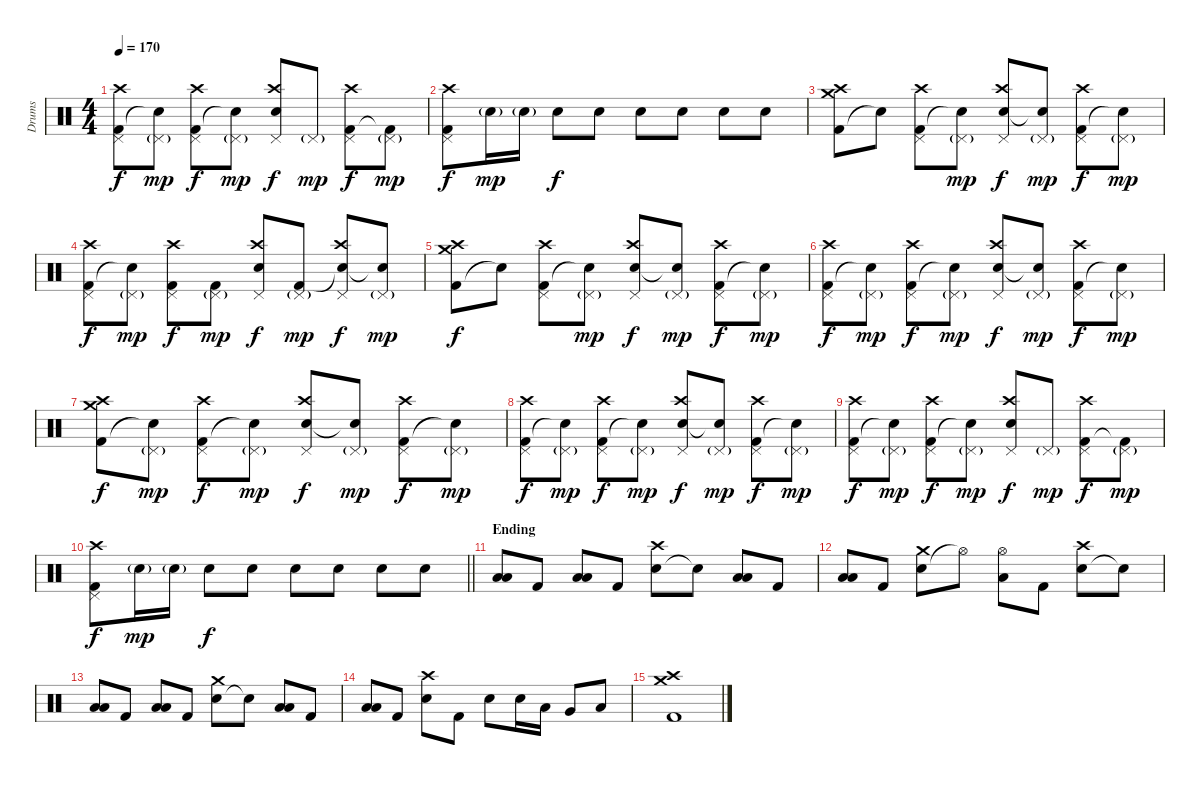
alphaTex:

\track ("Drums" "Drums") {instrument percussion}
\staff {score}
\articulation defaults
\ts (4 4)
\tempo 170
\clef neutral
\ks c
("Kick (hit) 2" "Pedal Hi-Hat (hit)" "Crash high (hit)").8{dy f} ("Snare (hit)"{t} "Pedal Hi-Hat (hit)"{g}).8{dy mp} ("Kick (hit) 2" "Pedal Hi-Hat (hit)" "Crash high (hit)").8{dy f} ("Snare (hit)"{t} "Pedal Hi-Hat (hit)"{g}).8{dy mp} ("Electric Snare (hit)" "Pedal Hi-Hat (hit)" "Crash high (hit)").8{dy f} "Pedal Hi-Hat (hit)"{g}.8{dy mp} ("Kick (hit) 2" "Pedal Hi-Hat (hit)" "Crash high (hit)").8{dy f} ("Kick (hit) 2"{t} "Pedal Hi-Hat (hit)"{g}).8{dy mp} |
("Kick (hit) 2" "Pedal Hi-Hat (hit)" "Crash high (hit)").8{dy f} "Electric Snare (hit)"{g}.16{dy mp} "Electric Snare (hit)"{g}.16 "Electric Snare (hit)".8{dy f} "Electric Snare (hit)".8 "Electric Snare (hit)".8 "Electric Snare (hit)".8 "Electric Snare (hit)".8 "Electric Snare (hit)".8 |
("Kick (hit) 2" "Crash medium (hit)" "Crash high (hit)").8 "Snare (hit)"{t}.8 ("Kick (hit) 2" "Pedal Hi-Hat (hit)" "Crash high (hit)").8 ("Snare (hit)"{t} "Pedal Hi-Hat (hit)"{g}).8{dy mp} ("Electric Snare (hit)" "Pedal Hi-Hat (hit)" "Crash high (hit)").8{dy f} ("Snare (hit)"{t} "Pedal Hi-Hat (hit)"{g}).8{dy mp} ("Kick (hit) 2" "Pedal Hi-Hat (hit)" "Crash high (hit)").8{dy f} ("Snare (hit)"{t} "Pedal Hi-Hat (hit)"{g}).8{dy mp} |
("Kick (hit) 2" "Pedal Hi-Hat (hit)" "Crash high (hit)").8{dy f} ("Snare (hit)"{t} "Pedal Hi-Hat (hit)"{g}).8{dy mp} ("Kick (hit) 2" "Pedal Hi-Hat (hit)" "Crash high (hit)").8{dy f} ("Kick (hit) 2" "Pedal Hi-Hat (hit)"{g}).8{dy mp} ("Electric Snare (hit)" "Pedal Hi-Hat (hit)" "Crash high (hit)").8{dy f} ("Kick (hit) 2" "Pedal Hi-Hat (hit)"{g}).8{dy mp} ("Snare (hit)"{t} "Pedal Hi-Hat (hit)" "Crash high (hit)").8{dy f} ("Snare (hit)"{t} "Pedal Hi-Hat (hit)"{g}).8{dy mp} |
("Kick (hit) 2" "Crash medium (hit)" "Crash high (hit)").8{dy f} "Snare (hit)"{t}.8 ("Kick (hit) 2" "Pedal Hi-Hat (hit)" "Crash high (hit)").8 ("Snare (hit)"{t} "Pedal Hi-Hat (hit)"{g}).8{dy mp} ("Electric Snare (hit)" "Pedal Hi-Hat (hit)" "Crash high (hit)").8{dy f} ("Snare (hit)"{t} "Pedal Hi-Hat (hit)"{g}).8{dy mp} ("Kick (hit) 2" "Pedal Hi-Hat (hit)" "Crash high (hit)").8{dy f} ("Snare (hit)"{t} "Pedal Hi-Hat (hit)"{g}).8{dy mp} |
("Kick (hit) 2" "Pedal Hi-Hat (hit)" "Crash high (hit)").8{dy f} ("Snare (hit)"{t} "Pedal Hi-Hat (hit)"{g}).8{dy mp} ("Kick (hit) 2" "Pedal Hi-Hat (hit)" "Crash high (hit)").8{dy f} ("Snare (hit)"{t} "Pedal Hi-Hat (hit)"{g}).8{dy mp} ("Electric Snare (hit)" "Pedal Hi-Hat (hit)" "Crash high (hit)").8{dy f} ("Snare (hit)"{t} "Pedal Hi-Hat (hit)"{g}).8{dy mp} ("Kick (hit) 2" "Pedal Hi-Hat (hit)" "Crash high (hit)").8{dy f} ("Snare (hit)"{t} "Pedal Hi-Hat (hit)"{g}).8{dy mp} |
("Kick (hit) 2" "Crash medium (hit)" "Crash high (hit)").8{dy f} ("Snare (hit)"{t} "Pedal Hi-Hat (hit)"{g}).8{dy mp} ("Kick (hit) 2" "Pedal Hi-Hat (hit)" "Crash high (hit)").8{dy f} ("Snare (hit)"{t} "Pedal Hi-Hat (hit)"{g}).8{dy mp} ("Electric Snare (hit)" "Pedal Hi-Hat (hit)" "Crash high (hit)").8{dy f} ("Snare (hit)"{t} "Pedal Hi-Hat (hit)"{g}).8{dy mp} ("Kick (hit) 2" "Pedal Hi-Hat (hit)" "Crash high (hit)").8{dy f} ("Snare (hit)"{t} "Pedal Hi-Hat (hit)"{g}).8{dy mp} |
("Kick (hit) 2" "Pedal Hi-Hat (hit)" "Crash high (hit)").8{dy f} ("Snare (hit)"{t} "Pedal Hi-Hat (hit)"{g}).8{dy mp} ("Kick (hit) 2" "Pedal Hi-Hat (hit)" "Crash high (hit)").8{dy f} ("Snare (hit)"{t} "Pedal Hi-Hat (hit)"{g}).8{dy mp} ("Electric Snare (hit)" "Pedal Hi-Hat (hit)" "Crash high (hit)").8{dy f} ("Snare (hit)"{t} "Pedal Hi-Hat (hit)"{g}).8{dy mp} ("Kick (hit) 2" "Pedal Hi-Hat (hit)" "Crash high (hit)").8{dy f} ("Snare (hit)"{t} "Pedal Hi-Hat (hit)"{g}).8{dy mp} |
("Kick (hit) 2" "Pedal Hi-Hat (hit)" "Crash high (hit)").8{dy f} ("Snare (hit)"{t} "Pedal Hi-Hat (hit)"{g}).8{dy mp} ("Kick (hit) 2" "Pedal Hi-Hat (hit)" "Crash high (hit)").8{dy f} ("Snare (hit)"{t} "Pedal Hi-Hat (hit)"{g}).8{dy mp} ("Electric Snare (hit)" "Pedal Hi-Hat (hit)" "Crash high (hit)").8{dy f} "Pedal Hi-Hat (hit)"{g}.8{dy mp} ("Kick (hit) 2" "Pedal Hi-Hat (hit)" "Crash high (hit)").8{dy f} ("Kick (hit) 2"{t} "Pedal Hi-Hat (hit)"{g}).8{dy mp} |
\barLineRight lightlight
("Kick (hit) 2" "Pedal Hi-Hat (hit)" "Crash high (hit)").8{dy f} "Electric Snare (hit)"{g}.16{dy mp} "Electric Snare (hit)"{g}.16 "Electric Snare (hit)".8{dy f} "Electric Snare (hit)".8 "Electric Snare (hit)".8 "Electric Snare (hit)".8 "Electric Snare (hit)".8 "Electric Snare (hit)".8 |
\section ("" "Ending")
("Low Tom (hit)" "Low Floor Tom (hit)").8 "Kick (hit) 2".8 ("Low Tom (hit)" "Low Floor Tom (hit)").8 "Kick (hit) 2".8 ("Electric Snare (hit)" "Crash high (hit)").8 "Snare (hit)"{t}.8 ("Low Tom (hit)" "Low Floor Tom (hit)").8 "Kick (hit) 2".8 |
("Low Tom (hit)" "Low Floor Tom (hit)").8 "Kick (hit) 2".8 ("Electric Snare (hit)" "Crash medium (hit)").8 "Hi-Hat (open)"{t}.8 ("Hi-Hat (open)" "Low Floor Tom (hit)").8 "Kick (hit) 2".8 ("Electric Snare (hit)" "Crash high (hit)").8 "Snare (hit)"{t}.8 |
("Low Tom (hit)" "Low Floor Tom (hit)").8 "Kick (hit) 2".8 ("Low Tom (hit)" "Low Floor Tom (hit)").8 "Kick (hit) 2".8 ("Electric Snare (hit)" "Crash medium (hit)").8 "Snare (hit)"{t}.8 ("Low Tom (hit)" "Low Floor Tom (hit)").8 "Kick (hit) 2".8 |
("Low Tom (hit)" "Low Floor Tom (hit)").8 "Kick (hit) 2".8 ("Electric Snare (hit)" "Crash high (hit)").8 "Kick (hit) 2".8 "Electric Snare (hit)".8 "Electric Snare (hit)".16 "Low Tom (hit)".16 "Very Low Tom (hit)".8 "Low Floor Tom (hit)".8 |
("Kick (hit) 2" "Crash medium (hit)" "Crash high (hit)").1
